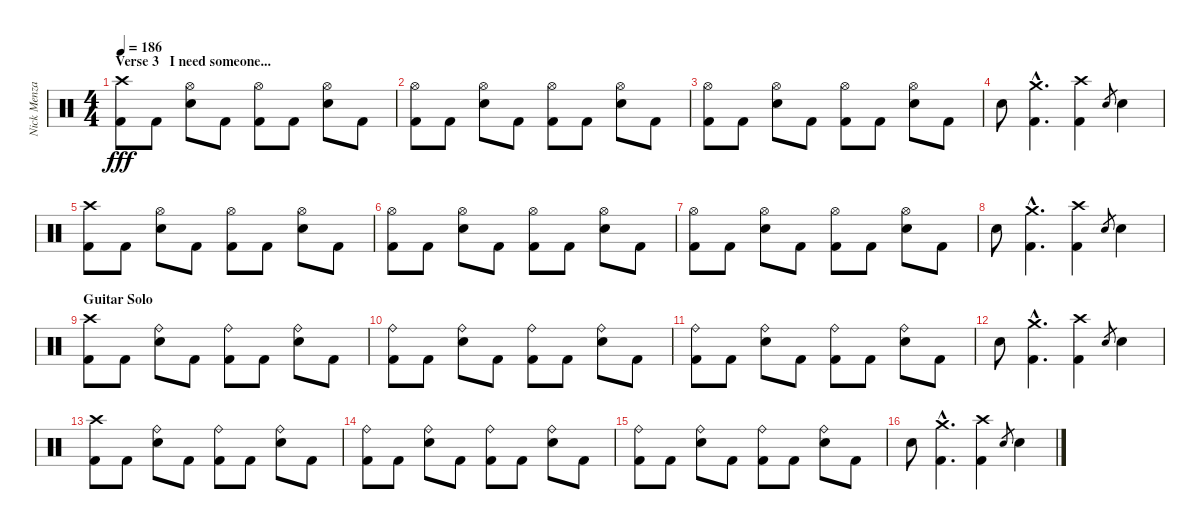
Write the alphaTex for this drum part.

\track ("Nick Menza [Drums]" "Nick Menza") {instrument percussion}
\staff {score}
\articulation defaults
\ts (4 4)
\section ("" "Verse 3   I need someone...")
\tempo 186
\clef neutral
\ks c
("Kick (hit) 2" "Crash high (hit)").8{dy fff} "Kick (hit) 2".8 ("Snare (hit) 2" "Hi-Hat (open)").8 "Kick (hit) 2".8 ("Kick (hit) 2" "Hi-Hat (open)").8 "Kick (hit) 2".8 ("Snare (hit) 2" "Hi-Hat (open)").8 "Kick (hit) 2".8 |
("Kick (hit) 2" "Hi-Hat (open)").8 "Kick (hit) 2".8 ("Snare (hit) 2" "Hi-Hat (open)").8 "Kick (hit) 2".8 ("Kick (hit) 2" "Hi-Hat (open)").8 "Kick (hit) 2".8 ("Snare (hit) 2" "Hi-Hat (open)").8 "Kick (hit) 2".8 |
("Kick (hit) 2" "Hi-Hat (open)").8 "Kick (hit) 2".8 ("Snare (hit) 2" "Hi-Hat (open)").8 "Kick (hit) 2".8 ("Kick (hit) 2" "Hi-Hat (open)").8 "Kick (hit) 2".8 ("Snare (hit) 2" "Hi-Hat (open)").8 "Kick (hit) 2".8 |
"Snare (hit) 2".8 ("Kick (hit) 2"{hac} "Crash medium (hit)"{hac}).4{d} ("Kick (hit) 2" "Crash high (hit)").4 "Snare (hit) 2".8{gr} "Snare (hit) 2".4 |
("Kick (hit) 2" "Crash high (hit)").8 "Kick (hit) 2".8 ("Snare (hit) 2" "Hi-Hat (open)").8 "Kick (hit) 2".8 ("Kick (hit) 2" "Hi-Hat (open)").8 "Kick (hit) 2".8 ("Snare (hit) 2" "Hi-Hat (open)").8 "Kick (hit) 2".8 |
("Kick (hit) 2" "Hi-Hat (open)").8 "Kick (hit) 2".8 ("Snare (hit) 2" "Hi-Hat (open)").8 "Kick (hit) 2".8 ("Kick (hit) 2" "Hi-Hat (open)").8 "Kick (hit) 2".8 ("Snare (hit) 2" "Hi-Hat (open)").8 "Kick (hit) 2".8 |
("Kick (hit) 2" "Hi-Hat (open)").8 "Kick (hit) 2".8 ("Snare (hit) 2" "Hi-Hat (open)").8 "Kick (hit) 2".8 ("Kick (hit) 2" "Hi-Hat (open)").8 "Kick (hit) 2".8 ("Snare (hit) 2" "Hi-Hat (open)").8 "Kick (hit) 2".8 |
"Snare (hit) 2".8 ("Kick (hit) 2"{hac} "Crash medium (hit)"{hac}).4{d} ("Kick (hit) 2" "Crash high (hit)").4 "Snare (hit) 2".8{gr} "Snare (hit) 2".4 |
\section ("" "Guitar Solo")
("Kick (hit) 2" "Crash high (hit)").8 "Kick (hit) 2".8 ("Snare (hit) 2" "Ride (bell)").8 "Kick (hit) 2".8 ("Kick (hit) 2" "Ride (bell)").8 "Kick (hit) 2".8 ("Snare (hit) 2" "Ride (bell)").8 "Kick (hit) 2".8 |
("Kick (hit) 2" "Ride (bell)").8 "Kick (hit) 2".8 ("Snare (hit) 2" "Ride (bell)").8 "Kick (hit) 2".8 ("Kick (hit) 2" "Ride (bell)").8 "Kick (hit) 2".8 ("Snare (hit) 2" "Ride (bell)").8 "Kick (hit) 2".8 |
("Kick (hit) 2" "Ride (bell)").8 "Kick (hit) 2".8 ("Snare (hit) 2" "Ride (bell)").8 "Kick (hit) 2".8 ("Kick (hit) 2" "Ride (bell)").8 "Kick (hit) 2".8 ("Snare (hit) 2" "Ride (bell)").8 "Kick (hit) 2".8 |
"Snare (hit) 2".8 ("Kick (hit) 2"{hac} "Crash medium (hit)"{hac}).4{d} ("Kick (hit) 2" "Crash high (hit)").4 "Snare (hit) 2".8{gr} "Snare (hit) 2".4 |
("Kick (hit) 2" "Crash high (hit)").8 "Kick (hit) 2".8 ("Snare (hit) 2" "Ride (bell)").8 "Kick (hit) 2".8 ("Kick (hit) 2" "Ride (bell)").8 "Kick (hit) 2".8 ("Snare (hit) 2" "Ride (bell)").8 "Kick (hit) 2".8 |
("Kick (hit) 2" "Ride (bell)").8 "Kick (hit) 2".8 ("Snare (hit) 2" "Ride (bell)").8 "Kick (hit) 2".8 ("Kick (hit) 2" "Ride (bell)").8 "Kick (hit) 2".8 ("Snare (hit) 2" "Ride (bell)").8 "Kick (hit) 2".8 |
("Kick (hit) 2" "Ride (bell)").8 "Kick (hit) 2".8 ("Snare (hit) 2" "Ride (bell)").8 "Kick (hit) 2".8 ("Kick (hit) 2" "Ride (bell)").8 "Kick (hit) 2".8 ("Snare (hit) 2" "Ride (bell)").8 "Kick (hit) 2".8 |
"Snare (hit) 2".8 ("Kick (hit) 2"{hac} "Crash medium (hit)"{hac}).4{d} ("Kick (hit) 2" "Crash high (hit)").4 "Snare (hit) 2".8{gr} "Snare (hit) 2".4
